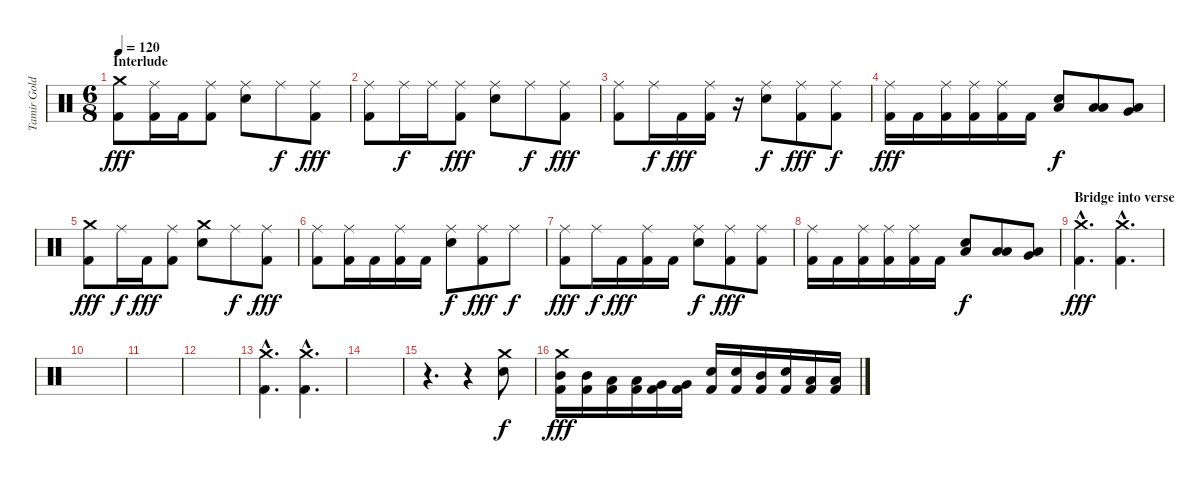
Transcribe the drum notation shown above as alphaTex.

\track ("Tamir Goldberg" "Tamir Gold") {instrument percussion}
\staff {score}
\articulation defaults
\ts (6 8)
\section ("" "Interlude")
\tempo 120
\clef neutral
\ks c
("Crash medium (hit)" "Kick (hit) 2").8{dy fff} ("Ride (middle)" "Kick (hit) 2").16 "Kick (hit) 2".16 ("Ride (middle)" "Kick (hit) 2").8 ("Ride (middle)" "Electric Snare (hit)").8 "Ride (middle)".8{dy f} ("Ride (middle)" "Kick (hit) 2").8{dy fff} |
("Ride (middle)" "Kick (hit) 2").8 "Ride (middle)".16{dy f} "Ride (middle)".16 ("Ride (middle)" "Kick (hit) 2").8{dy fff} ("Ride (middle)" "Electric Snare (hit)").8 "Ride (middle)".8{dy f} ("Ride (middle)" "Kick (hit) 2").8{dy fff} |
("Ride (middle)" "Kick (hit) 2").8 "Ride (middle)".16{dy f} "Kick (hit) 2".16{dy fff} ("Ride (middle)" "Kick (hit) 2").16 r.16 ("Ride (middle)" "Electric Snare (hit)").8{dy f} ("Ride (middle)" "Kick (hit) 2").8{dy fff} ("Ride (middle)" "Kick (hit) 2").8{dy f} |
("Ride (middle)" "Kick (hit) 2").16{dy fff} "Kick (hit) 2".16 ("Ride (middle)" "Kick (hit) 2").16 ("Ride (middle)" "Kick (hit) 2").16 ("Ride (middle)" "Kick (hit) 2").16 "Kick (hit) 2".16 ("Low Floor Tom (hit)" "Electric Snare (hit)").8{dy f} ("Low Floor Tom (hit)" "Low Tom (hit)").8 ("Low Floor Tom (hit)" "Very Low Tom (hit)").8 |
("Crash medium (hit)" "Kick (hit) 2").8{dy fff} "Ride (middle)".16{dy f} "Kick (hit) 2".16{dy fff} ("Ride (middle)" "Kick (hit) 2").8 ("Crash medium (hit)" "Electric Snare (hit)").8 "Ride (middle)".8{dy f} ("Ride (middle)" "Kick (hit) 2").8{dy fff} |
("Ride (middle)" "Kick (hit) 2").8 ("Ride (middle)" "Kick (hit) 2").16 "Kick (hit) 2".16 ("Ride (middle)" "Kick (hit) 2").16 "Kick (hit) 2".16 ("Ride (middle)" "Electric Snare (hit)").8{dy f} ("Ride (middle)" "Kick (hit) 2").8{dy fff} "Ride (middle)".8{dy f} |
("Ride (middle)" "Kick (hit) 2").8{dy fff} "Ride (middle)".16{dy f} "Kick (hit) 2".16{dy fff} ("Ride (middle)" "Kick (hit) 2").16 "Kick (hit) 2".16 ("Ride (middle)" "Electric Snare (hit)").8{dy f} ("Ride (middle)" "Kick (hit) 2").8{dy fff} ("Ride (middle)" "Kick (hit) 2").8 |
("Ride (middle)" "Kick (hit) 2").16 "Kick (hit) 2".16 ("Ride (middle)" "Kick (hit) 2").16 ("Ride (middle)" "Kick (hit) 2").16 ("Ride (middle)" "Kick (hit) 2").16 "Kick (hit) 2".16 ("Low Floor Tom (hit)" "Electric Snare (hit)").8{dy f} ("Low Floor Tom (hit)" "Low Tom (hit)").8 ("Low Floor Tom (hit)" "Very Low Tom (hit)").8 |
\section ("" "Bridge into verse")
("Crash medium (hit)"{hac} "Kick (hit) 2"{hac}).4{d dy fff} ("Crash medium (hit)"{hac} "Kick (hit) 2"{hac}).4{d} |
|
|
|
("Crash medium (hit)"{hac} "Kick (hit) 2"{hac}).4{d} ("Crash medium (hit)"{hac} "Kick (hit) 2"{hac}).4{d} |
|
r.4{d} r.4 ("Crash medium (hit)" "Electric Snare (hit)").8{dy f} |
("Crash medium (hit)" "Mid Tom (hit)" "Kick (hit) 2").16{dy fff} ("Mid Tom (hit)" "Kick (hit) 2").16 ("Low Tom (hit)" "Kick (hit) 2").16 ("Low Tom (hit)" "Kick (hit) 2").16 ("Very Low Tom (hit)" "Kick (hit) 2").16 ("Very Low Tom (hit)" "Kick (hit) 2").16 ("Electric Snare (hit)" "Kick (hit) 2").16 ("Electric Snare (hit)" "Kick (hit) 2").16 ("Mid Tom (hit)" "Kick (hit) 2").16 ("Electric Snare (hit)" "Kick (hit) 2").16 ("Low Tom (hit)" "Kick (hit) 2").16 ("Low Tom (hit)" "Kick (hit) 2").16
